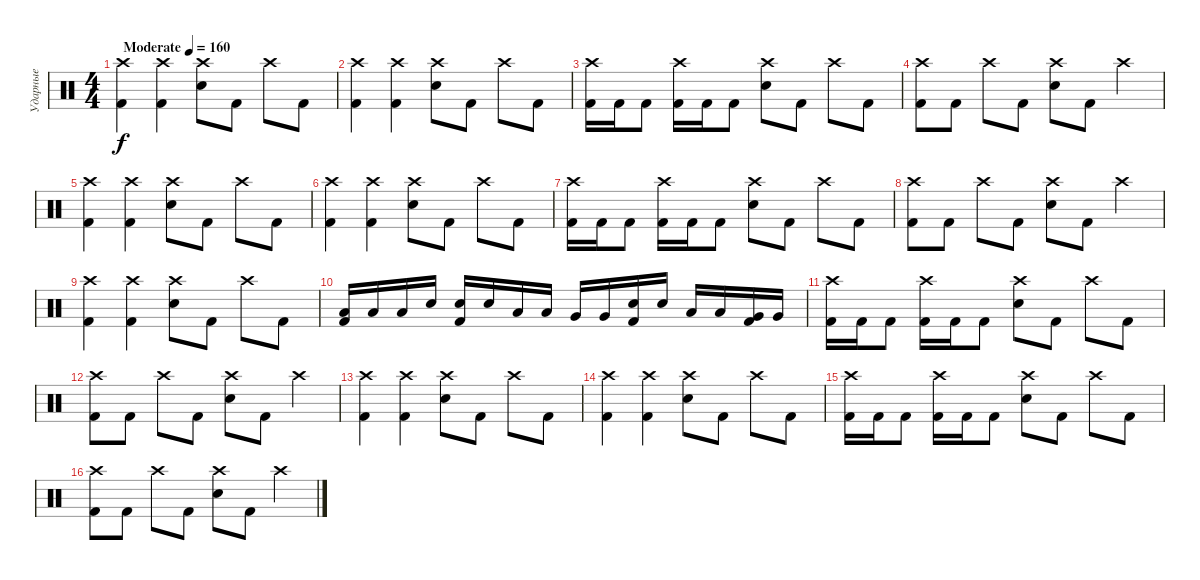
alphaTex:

\track ("Ударные" "Ударные") {instrument percussion}
\staff {score}
\articulation defaults
\ts (4 4)
\tempo (160 "Moderate")
\clef neutral
\ks c
("Crash high (hit)" "Kick (hit) 2").4{dy f} ("Crash high (hit)" "Kick (hit) 2").4 ("Crash high (hit)" "Electric Snare (hit)").8 "Kick (hit) 2".8 "Crash high (hit)".8 "Kick (hit) 2".8 |
("Crash high (hit)" "Kick (hit) 2").4 ("Crash high (hit)" "Kick (hit) 2").4 ("Crash high (hit)" "Electric Snare (hit)").8 "Kick (hit) 2".8 "Crash high (hit)".8 "Kick (hit) 2".8 |
("Crash high (hit)" "Kick (hit) 2").16 "Kick (hit) 2".16 "Kick (hit) 2".8 ("Crash high (hit)" "Kick (hit) 2").16 "Kick (hit) 2".16 "Kick (hit) 2".8 ("Crash high (hit)" "Electric Snare (hit)").8 "Kick (hit) 2".8 "Crash high (hit)".8 "Kick (hit) 2".8 |
("Crash high (hit)" "Kick (hit) 2").8 "Kick (hit) 2".8 "Crash high (hit)".8 "Kick (hit) 2".8 ("Crash high (hit)" "Electric Snare (hit)").8 "Kick (hit) 2".8 "Crash high (hit)".4 |
("Crash high (hit)" "Kick (hit) 2").4 ("Crash high (hit)" "Kick (hit) 2").4 ("Crash high (hit)" "Electric Snare (hit)").8 "Kick (hit) 2".8 "Crash high (hit)".8 "Kick (hit) 2".8 |
("Crash high (hit)" "Kick (hit) 2").4 ("Crash high (hit)" "Kick (hit) 2").4 ("Crash high (hit)" "Electric Snare (hit)").8 "Kick (hit) 2".8 "Crash high (hit)".8 "Kick (hit) 2".8 |
("Crash high (hit)" "Kick (hit) 2").16 "Kick (hit) 2".16 "Kick (hit) 2".8 ("Crash high (hit)" "Kick (hit) 2").16 "Kick (hit) 2".16 "Kick (hit) 2".8 ("Crash high (hit)" "Electric Snare (hit)").8 "Kick (hit) 2".8 "Crash high (hit)".8 "Kick (hit) 2".8 |
("Crash high (hit)" "Kick (hit) 2").8 "Kick (hit) 2".8 "Crash high (hit)".8 "Kick (hit) 2".8 ("Crash high (hit)" "Electric Snare (hit)").8 "Kick (hit) 2".8 "Crash high (hit)".4 |
("Crash high (hit)" "Kick (hit) 2").4 ("Crash high (hit)" "Kick (hit) 2").4 ("Crash high (hit)" "Electric Snare (hit)").8 "Kick (hit) 2".8 "Crash high (hit)".8 "Kick (hit) 2".8 |
("Low Tom (hit)" "Kick (hit) 2").16 "Low Tom (hit)".16 "Low Tom (hit)".16 "Electric Snare (hit)".16 ("Electric Snare (hit)" "Kick (hit) 2").16 "Electric Snare (hit)".16 "Low Tom (hit)".16 "Low Tom (hit)".16 "Very Low Tom (hit)".16 "Very Low Tom (hit)".16 ("Electric Snare (hit)" "Kick (hit) 2").16 "Electric Snare (hit)".16 "Low Tom (hit)".16 "Low Tom (hit)".16 ("Very Low Tom (hit)" "Kick (hit) 2").16 "Very Low Tom (hit)".16 |
("Crash high (hit)" "Kick (hit) 2").16 "Kick (hit) 2".16 "Kick (hit) 2".8 ("Crash high (hit)" "Kick (hit) 2").16 "Kick (hit) 2".16 "Kick (hit) 2".8 ("Crash high (hit)" "Electric Snare (hit)").8 "Kick (hit) 2".8 "Crash high (hit)".8 "Kick (hit) 2".8 |
("Crash high (hit)" "Kick (hit) 2").8 "Kick (hit) 2".8 "Crash high (hit)".8 "Kick (hit) 2".8 ("Crash high (hit)" "Electric Snare (hit)").8 "Kick (hit) 2".8 "Crash high (hit)".4 |
("Crash high (hit)" "Kick (hit) 2").4 ("Crash high (hit)" "Kick (hit) 2").4 ("Crash high (hit)" "Electric Snare (hit)").8 "Kick (hit) 2".8 "Crash high (hit)".8 "Kick (hit) 2".8 |
("Crash high (hit)" "Kick (hit) 2").4 ("Crash high (hit)" "Kick (hit) 2").4 ("Crash high (hit)" "Electric Snare (hit)").8 "Kick (hit) 2".8 "Crash high (hit)".8 "Kick (hit) 2".8 |
("Crash high (hit)" "Kick (hit) 2").16 "Kick (hit) 2".16 "Kick (hit) 2".8 ("Crash high (hit)" "Kick (hit) 2").16 "Kick (hit) 2".16 "Kick (hit) 2".8 ("Crash high (hit)" "Electric Snare (hit)").8 "Kick (hit) 2".8 "Crash high (hit)".8 "Kick (hit) 2".8 |
("Crash high (hit)" "Kick (hit) 2").8 "Kick (hit) 2".8 "Crash high (hit)".8 "Kick (hit) 2".8 ("Crash high (hit)" "Electric Snare (hit)").8 "Kick (hit) 2".8 "Crash high (hit)".4
